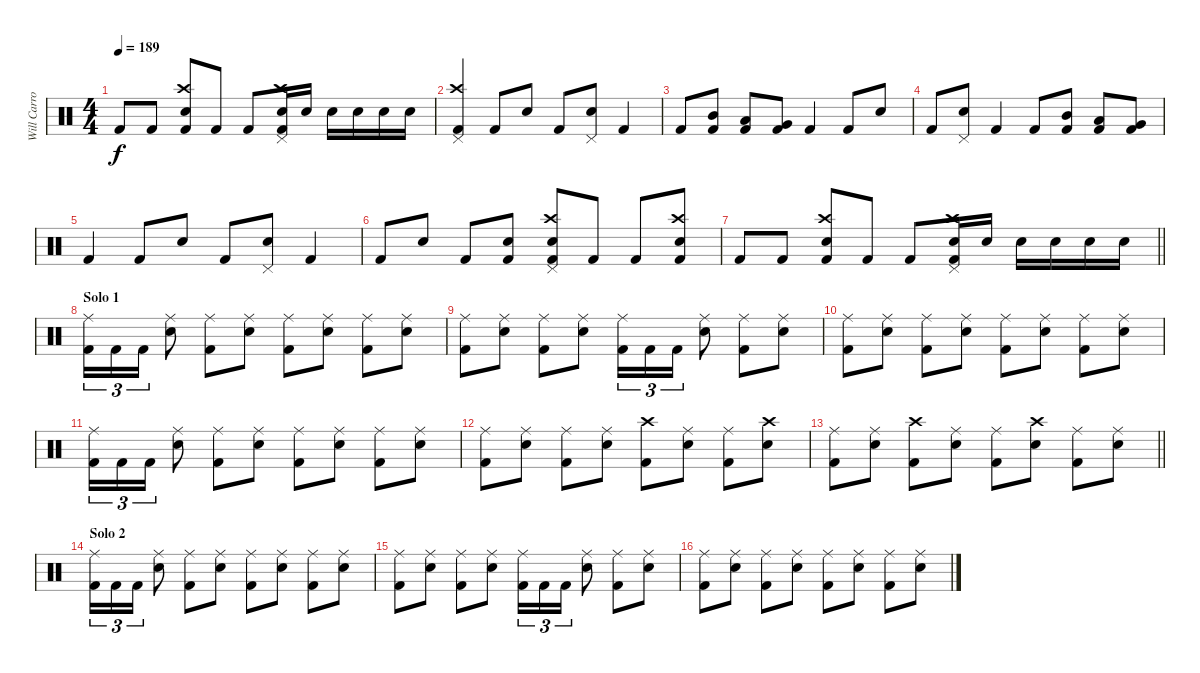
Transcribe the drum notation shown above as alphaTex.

\track ("Will Carroll" "Will Carro") {instrument percussion}
\staff {score}
\articulation defaults
\ts (4 4)
\tempo 189
\clef neutral
\ks c "Kick (hit) 2".8{dy f} "Kick (hit) 2".8
("Crash high (hit)" "Electric Snare (hit)" "Kick (hit) 2").8 "Kick (hit) 2".8 "Kick (hit) 2".8 ("Crash high (hit)" "Pedal Hi-Hat (hit)" "Electric Snare (hit)" "Kick (hit) 2").16 "Electric Snare (hit)".16 "Electric Snare (hit)".16 "Electric Snare (hit)".16 "Electric Snare (hit)".16 "Electric Snare (hit)".16 |
("Crash high (hit)" "Pedal Hi-Hat (hit)" "Kick (hit) 2").4 "Kick (hit) 2".8 "Electric Snare (hit)".8 "Kick (hit) 2".8 ("Pedal Hi-Hat (hit)" "Electric Snare (hit)").8 "Kick (hit) 2".4 |
"Kick (hit) 2".8 ("Mid Tom (hit)" "Kick (hit) 2").8 ("Low Tom (hit)" "Kick (hit) 2").8 ("Very Low Tom (hit)" "Kick (hit) 2").8 "Kick (hit) 2".4 "Kick (hit) 2".8 "Electric Snare (hit)".8 |
"Kick (hit) 2".8 ("Pedal Hi-Hat (hit)" "Electric Snare (hit)").8 "Kick (hit) 2".4 "Kick (hit) 2".8 ("Mid Tom (hit)" "Kick (hit) 2").8 ("Low Tom (hit)" "Kick (hit) 2").8 ("Very Low Tom (hit)" "Kick (hit) 2").8 |
"Kick (hit) 2".4 "Kick (hit) 2".8 "Electric Snare (hit)".8 "Kick (hit) 2".8 ("Pedal Hi-Hat (hit)" "Electric Snare (hit)").8 "Kick (hit) 2".4 |
"Kick (hit) 2".8 "Electric Snare (hit)".8 "Kick (hit) 2".8 ("Electric Snare (hit)" "Kick (hit) 2").8 ("Crash high (hit)" "Pedal Hi-Hat (hit)" "Electric Snare (hit)" "Kick (hit) 2").8 "Kick (hit) 2".8 "Kick (hit) 2".8 ("Crash high (hit)" "Electric Snare (hit)" "Kick (hit) 2").8 |
\barLineRight lightlight "Kick (hit) 2".8 "Kick (hit) 2".8
("Crash high (hit)" "Electric Snare (hit)" "Kick (hit) 2").8 "Kick (hit) 2".8 "Kick (hit) 2".8 ("Crash high (hit)" "Pedal Hi-Hat (hit)" "Electric Snare (hit)" "Kick (hit) 2").16 "Electric Snare (hit)".16 "Electric Snare (hit)".16 "Electric Snare (hit)".16 "Electric Snare (hit)".16 "Electric Snare (hit)".16 |
\section ("" "Solo 1")
("Ride (middle)" "Kick (hit) 2").16{tu (3 2)} "Kick (hit) 2".16{tu (3 2)} "Kick (hit) 2".16{tu (3 2)} ("Ride (middle)" "Electric Snare (hit)").8 ("Ride (middle)" "Kick (hit) 2").8 ("Ride (middle)" "Electric Snare (hit)").8 ("Ride (middle)" "Kick (hit) 2").8 ("Ride (middle)" "Electric Snare (hit)").8 ("Ride (middle)" "Kick (hit) 2").8 ("Ride (middle)" "Electric Snare (hit)").8 |
("Ride (middle)" "Kick (hit) 2").8 ("Ride (middle)" "Electric Snare (hit)").8 ("Ride (middle)" "Kick (hit) 2").8 ("Ride (middle)" "Electric Snare (hit)").8 ("Ride (middle)" "Kick (hit) 2").16{tu (3 2)} "Kick (hit) 2".16{tu (3 2)} "Kick (hit) 2".16{tu (3 2)} ("Ride (middle)" "Electric Snare (hit)").8 ("Ride (middle)" "Kick (hit) 2").8 ("Ride (middle)" "Electric Snare (hit)").8 |
("Ride (middle)" "Kick (hit) 2").8 ("Ride (middle)" "Electric Snare (hit)").8 ("Ride (middle)" "Kick (hit) 2").8 ("Ride (middle)" "Electric Snare (hit)").8 ("Ride (middle)" "Kick (hit) 2").8 ("Ride (middle)" "Electric Snare (hit)").8 ("Ride (middle)" "Kick (hit) 2").8 ("Ride (middle)" "Electric Snare (hit)").8 |
("Ride (middle)" "Kick (hit) 2").16{tu (3 2)} "Kick (hit) 2".16{tu (3 2)} "Kick (hit) 2".16{tu (3 2)} ("Ride (middle)" "Electric Snare (hit)").8 ("Ride (middle)" "Kick (hit) 2").8 ("Ride (middle)" "Electric Snare (hit)").8 ("Ride (middle)" "Kick (hit) 2").8 ("Ride (middle)" "Electric Snare (hit)").8 ("Ride (middle)" "Kick (hit) 2").8 ("Ride (middle)" "Electric Snare (hit)").8 |
("Ride (middle)" "Kick (hit) 2").8 ("Ride (middle)" "Electric Snare (hit)").8 ("Ride (middle)" "Kick (hit) 2").8 ("Ride (middle)" "Electric Snare (hit)").8 ("Crash high (hit)" "Kick (hit) 2").8 ("Ride (middle)" "Electric Snare (hit)").8 ("Ride (middle)" "Kick (hit) 2").8 ("Crash high (hit)" "Electric Snare (hit)").8 |
\barLineRight lightlight
("Ride (middle)" "Kick (hit) 2").8 ("Ride (middle)" "Electric Snare (hit)").8 ("Crash high (hit)" "Kick (hit) 2").8 ("Ride (middle)" "Electric Snare (hit)").8 ("Ride (middle)" "Kick (hit) 2").8 ("Crash high (hit)" "Electric Snare (hit)").8 ("Ride (middle)" "Kick (hit) 2").8 ("Ride (middle)" "Electric Snare (hit)").8 |
\section ("" "Solo 2")
("Ride (middle)" "Kick (hit) 2").16{tu (3 2)} "Kick (hit) 2".16{tu (3 2)} "Kick (hit) 2".16{tu (3 2)} ("Ride (middle)" "Electric Snare (hit)").8 ("Ride (middle)" "Kick (hit) 2").8 ("Ride (middle)" "Electric Snare (hit)").8 ("Ride (middle)" "Kick (hit) 2").8 ("Ride (middle)" "Electric Snare (hit)").8 ("Ride (middle)" "Kick (hit) 2").8 ("Ride (middle)" "Electric Snare (hit)").8 |
("Ride (middle)" "Kick (hit) 2").8 ("Ride (middle)" "Electric Snare (hit)").8 ("Ride (middle)" "Kick (hit) 2").8 ("Ride (middle)" "Electric Snare (hit)").8 ("Ride (middle)" "Kick (hit) 2").16{tu (3 2)} "Kick (hit) 2".16{tu (3 2)} "Kick (hit) 2".16{tu (3 2)} ("Ride (middle)" "Electric Snare (hit)").8 ("Ride (middle)" "Kick (hit) 2").8 ("Ride (middle)" "Electric Snare (hit)").8 |
("Ride (middle)" "Kick (hit) 2").8 ("Ride (middle)" "Electric Snare (hit)").8 ("Ride (middle)" "Kick (hit) 2").8 ("Ride (middle)" "Electric Snare (hit)").8 ("Ride (middle)" "Kick (hit) 2").8 ("Ride (middle)" "Electric Snare (hit)").8 ("Ride (middle)" "Kick (hit) 2").8 ("Ride (middle)" "Electric Snare (hit)").8
